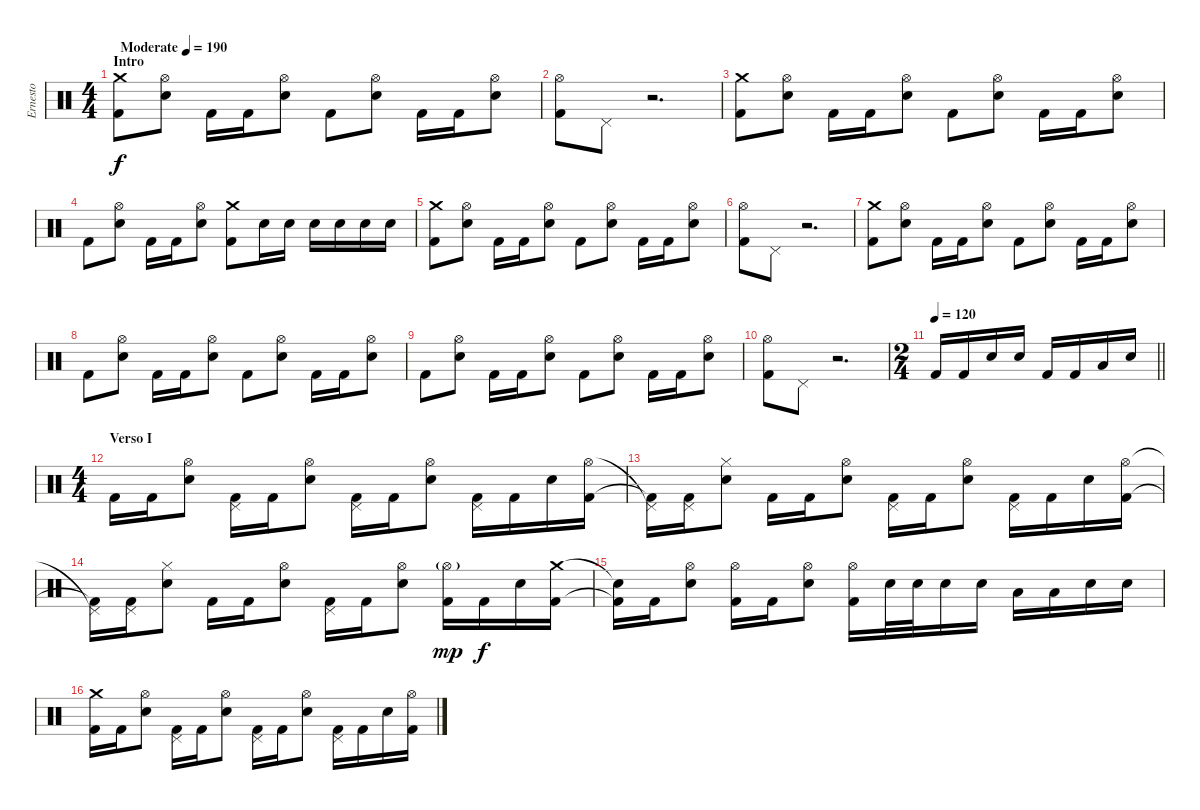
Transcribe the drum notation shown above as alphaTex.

\track ("Ernesto" "Ernesto") {instrument percussion}
\staff
\articulation defaults
\ts (4 4)
\section ("" "Intro")
\tempo (190 "Moderate")
\clef neutral
\ks c
("Crash medium (hit)" "Kick (hit) 2").8{dy f} ("Hi-Hat (open)" "Electric Snare (hit)").8 "Kick (hit) 2".16 "Kick (hit) 2".16 ("Hi-Hat (open)" "Electric Snare (hit)").8 "Kick (hit) 2".8 ("Hi-Hat (open)" "Electric Snare (hit)").8 "Kick (hit) 2".16 "Kick (hit) 2".16 ("Hi-Hat (open)" "Electric Snare (hit)").8 |
("Hi-Hat (open)" "Kick (hit) 2").8 "Pedal Hi-Hat (hit)".8 r.2{d} |
("Crash medium (hit)" "Kick (hit) 2").8 ("Hi-Hat (open)" "Electric Snare (hit)").8 "Kick (hit) 2".16 "Kick (hit) 2".16 ("Hi-Hat (open)" "Electric Snare (hit)").8 "Kick (hit) 2".8 ("Hi-Hat (open)" "Electric Snare (hit)").8 "Kick (hit) 2".16 "Kick (hit) 2".16 ("Hi-Hat (open)" "Electric Snare (hit)").8 |
"Kick (hit) 2".8 ("Hi-Hat (open)" "Electric Snare (hit)").8 "Kick (hit) 2".16 "Kick (hit) 2".16 ("Hi-Hat (open)" "Electric Snare (hit)").8 ("Crash medium (hit)" "Kick (hit) 2").8 "Electric Snare (hit)".16 "Electric Snare (hit)".16 "Electric Snare (hit)".16 "Electric Snare (hit)".16 "Electric Snare (hit)".16 "Electric Snare (hit)".16 |
("Crash medium (hit)" "Kick (hit) 2").8 ("Hi-Hat (open)" "Electric Snare (hit)").8 "Kick (hit) 2".16 "Kick (hit) 2".16 ("Hi-Hat (open)" "Electric Snare (hit)").8 "Kick (hit) 2".8 ("Hi-Hat (open)" "Electric Snare (hit)").8 "Kick (hit) 2".16 "Kick (hit) 2".16 ("Hi-Hat (open)" "Electric Snare (hit)").8 |
("Hi-Hat (open)" "Kick (hit) 2").8 "Pedal Hi-Hat (hit)".8 r.2{d} |
("Crash medium (hit)" "Kick (hit) 2").8 ("Hi-Hat (open)" "Electric Snare (hit)").8 "Kick (hit) 2".16 "Kick (hit) 2".16 ("Hi-Hat (open)" "Electric Snare (hit)").8 "Kick (hit) 2".8 ("Hi-Hat (open)" "Electric Snare (hit)").8 "Kick (hit) 2".16 "Kick (hit) 2".16 ("Hi-Hat (open)" "Electric Snare (hit)").8 |
"Kick (hit) 2".8 ("Hi-Hat (open)" "Electric Snare (hit)").8 "Kick (hit) 2".16 "Kick (hit) 2".16 ("Hi-Hat (open)" "Electric Snare (hit)").8 "Kick (hit) 2".8 ("Hi-Hat (open)" "Electric Snare (hit)").8 "Kick (hit) 2".16 "Kick (hit) 2".16 ("Hi-Hat (open)" "Electric Snare (hit)").8 |
"Kick (hit) 2".8 ("Hi-Hat (open)" "Electric Snare (hit)").8 "Kick (hit) 2".16 "Kick (hit) 2".16 ("Hi-Hat (open)" "Electric Snare (hit)").8 "Kick (hit) 2".8 ("Hi-Hat (open)" "Electric Snare (hit)").8 "Kick (hit) 2".16 "Kick (hit) 2".16 ("Hi-Hat (open)" "Electric Snare (hit)").8 |
("Hi-Hat (open)" "Kick (hit) 2").8 "Pedal Hi-Hat (hit)".8 r.2{d} |
\ts (2 4)
\tempo 120
\barLineRight lightlight "Kick (hit) 2".16 "Kick (hit) 2".16 "Electric Snare (hit)".16 "Electric Snare (hit)".16 "Kick (hit) 2".16 "Kick (hit) 2".16 "Low Tom (hit)".16 "Electric Snare (hit)".16
|
\ts (4 4)
\section ("" "Verso I")
"Kick (hit) 2".16 "Kick (hit) 2".16 ("Hi-Hat (open)" "Electric Snare (hit)").8 ("Pedal Hi-Hat (hit)" "Kick (hit) 2").16 "Kick (hit) 2".16 ("Hi-Hat (open)" "Electric Snare (hit)").8 ("Pedal Hi-Hat (hit)" "Kick (hit) 2").16 "Kick (hit) 2".16 ("Hi-Hat (open)" "Electric Snare (hit)").8 ("Pedal Hi-Hat (hit)" "Kick (hit) 2").16 "Kick (hit) 2".16 "Electric Snare (hit)".16 ("Hi-Hat (open)" "Kick (hit) 2").16 |
("Pedal Hi-Hat (hit)"{t} "Kick (hit) 2"{t}).16 ("Pedal Hi-Hat (hit)" "Kick (hit) 2").16 ("Hi-Hat (closed)" "Electric Snare (hit)").8 "Kick (hit) 2".16 "Kick (hit) 2".16 ("Hi-Hat (open)" "Electric Snare (hit)").8 ("Pedal Hi-Hat (hit)" "Kick (hit) 2").16 "Kick (hit) 2".16 ("Hi-Hat (open)" "Electric Snare (hit)").8 ("Pedal Hi-Hat (hit)" "Kick (hit) 2").16 "Kick (hit) 2".16 "Electric Snare (hit)".16 ("Hi-Hat (open)" "Kick (hit) 2").16 |
("Pedal Hi-Hat (hit)"{t} "Kick (hit) 2"{t}).16 ("Pedal Hi-Hat (hit)" "Kick (hit) 2").16 ("Hi-Hat (closed)" "Electric Snare (hit)").8 "Kick (hit) 2".16 "Kick (hit) 2".16 ("Hi-Hat (open)" "Electric Snare (hit)").8 ("Pedal Hi-Hat (hit)" "Kick (hit) 2").16 "Kick (hit) 2".16 ("Hi-Hat (open)" "Electric Snare (hit)").8 ("Hi-Hat (open)"{g} "Kick (hit) 2").16{dy mp} "Kick (hit) 2".16{dy f} "Electric Snare (hit)".16 ("Crash medium (hit)" "Kick (hit) 2").16 |
("Snare (hit)"{t} "Kick (hit) 2"{t}).16 "Kick (hit) 2".16 ("Hi-Hat (open)" "Electric Snare (hit)").8 ("Hi-Hat (open)" "Kick (hit) 2").16 "Kick (hit) 2".16 ("Hi-Hat (open)" "Electric Snare (hit)").8 ("Hi-Hat (open)" "Kick (hit) 2").16 "Electric Snare (hit)".32 "Electric Snare (hit)".32 "Electric Snare (hit)".16 "Electric Snare (hit)".16 "Low Tom (hit)".16 "Low Tom (hit)".16 "Electric Snare (hit)".16 "Electric Snare (hit)".16 |
("Crash medium (hit)" "Kick (hit) 2").16 "Kick (hit) 2".16 ("Hi-Hat (open)" "Electric Snare (hit)").8 ("Pedal Hi-Hat (hit)" "Kick (hit) 2").16 "Kick (hit) 2".16 ("Hi-Hat (open)" "Electric Snare (hit)").8 ("Pedal Hi-Hat (hit)" "Kick (hit) 2").16 "Kick (hit) 2".16 ("Hi-Hat (open)" "Electric Snare (hit)").8 ("Pedal Hi-Hat (hit)" "Kick (hit) 2").16 "Kick (hit) 2".16 "Electric Snare (hit)".16 ("Hi-Hat (open)" "Kick (hit) 2").16
